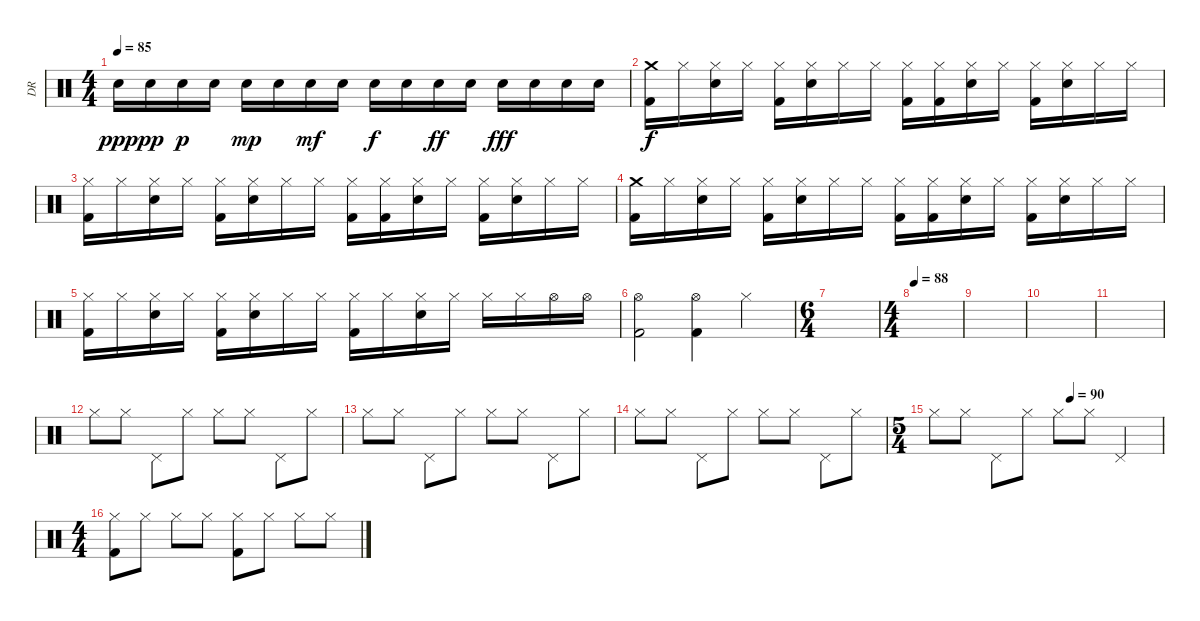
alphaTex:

\track ("DR" "DR") {instrument percussion}
\staff {score}
\articulation defaults
\ts (4 4)
\tempo 85
\clef neutral
\ks c "Snare (hit) 2".16{dy ppp} "Snare (hit) 2".16{dy pp} "Snare (hit) 2".16{dy p} "Snare (hit) 2".16 "Snare (hit) 2".16{dy mp} "Snare (hit) 2".16 "Snare (hit) 2".16{dy mf} "Snare (hit) 2".16 "Snare (hit) 2".16{dy f} "Snare (hit) 2".16 "Snare (hit) 2".16{dy ff} "Snare (hit) 2".16 "Snare (hit) 2".16{dy fff} "Snare (hit) 2".16 "Snare (hit) 2".16 "Snare (hit) 2".16
|
("Crash medium (hit)" "Kick (hit) 2").16{dy f} "Hi-Hat (closed)".16 ("Hi-Hat (closed)" "Snare (hit) 2").16 "Hi-Hat (closed)".16 ("Hi-Hat (closed)" "Kick (hit) 2").16 ("Hi-Hat (closed)" "Snare (hit) 2").16 "Hi-Hat (closed)".16 "Hi-Hat (closed)".16 ("Hi-Hat (closed)" "Kick (hit) 2").16 ("Hi-Hat (closed)" "Kick (hit) 2").16 ("Hi-Hat (closed)" "Snare (hit) 2").16 "Hi-Hat (closed)".16 ("Hi-Hat (closed)" "Kick (hit) 2").16 ("Hi-Hat (closed)" "Snare (hit) 2").16 "Hi-Hat (closed)".16 "Hi-Hat (closed)".16 |
("Hi-Hat (closed)" "Kick (hit) 2").16 "Hi-Hat (closed)".16 ("Hi-Hat (closed)" "Snare (hit) 2").16 "Hi-Hat (closed)".16 ("Hi-Hat (closed)" "Kick (hit) 2").16 ("Hi-Hat (closed)" "Snare (hit) 2").16 "Hi-Hat (closed)".16 "Hi-Hat (closed)".16 ("Hi-Hat (closed)" "Kick (hit) 2").16 ("Hi-Hat (closed)" "Kick (hit) 2").16 ("Hi-Hat (closed)" "Snare (hit) 2").16 "Hi-Hat (closed)".16 ("Hi-Hat (closed)" "Kick (hit) 2").16 ("Hi-Hat (closed)" "Snare (hit) 2").16 "Hi-Hat (closed)".16 "Hi-Hat (closed)".16 |
("Crash medium (hit)" "Kick (hit) 2").16 "Hi-Hat (closed)".16 ("Hi-Hat (closed)" "Snare (hit) 2").16 "Hi-Hat (closed)".16 ("Hi-Hat (closed)" "Kick (hit) 2").16 ("Hi-Hat (closed)" "Snare (hit) 2").16 "Hi-Hat (closed)".16 "Hi-Hat (closed)".16 ("Hi-Hat (closed)" "Kick (hit) 2").16 ("Hi-Hat (closed)" "Kick (hit) 2").16 ("Hi-Hat (closed)" "Snare (hit) 2").16 "Hi-Hat (closed)".16 ("Hi-Hat (closed)" "Kick (hit) 2").16 ("Hi-Hat (closed)" "Snare (hit) 2").16 "Hi-Hat (closed)".16 "Hi-Hat (closed)".16 |
("Hi-Hat (closed)" "Kick (hit) 2").16 "Hi-Hat (closed)".16 ("Hi-Hat (closed)" "Snare (hit) 2").16 "Hi-Hat (closed)".16 ("Hi-Hat (closed)" "Kick (hit) 2").16 ("Hi-Hat (closed)" "Snare (hit) 2").16 "Hi-Hat (closed)".16 "Hi-Hat (closed)".16 ("Hi-Hat (closed)" "Kick (hit) 2").16 "Hi-Hat (closed)".16 ("Hi-Hat (closed)" "Snare (hit) 2").16 "Hi-Hat (closed)".16 "Hi-Hat (closed)".16 "Hi-Hat (closed)".16 "Hi-Hat (open)".16 "Hi-Hat (open)".16 |
("Hi-Hat (open)" "Kick (hit) 2").2 ("Hi-Hat (open)" "Kick (hit) 2").4 "Hi-Hat (closed)".4 |
\ts (6 4)
|
\ts (4 4)
\tempo 88
|
|
|
|
"Hi-Hat (closed)".8 "Hi-Hat (closed)".8 "Pedal Hi-Hat (hit)".8 "Hi-Hat (closed)".8 "Hi-Hat (closed)".8 "Hi-Hat (closed)".8 "Pedal Hi-Hat (hit)".8 "Hi-Hat (closed)".8 |
"Hi-Hat (closed)".8 "Hi-Hat (closed)".8 "Pedal Hi-Hat (hit)".8 "Hi-Hat (closed)".8 "Hi-Hat (closed)".8 "Hi-Hat (closed)".8 "Pedal Hi-Hat (hit)".8 "Hi-Hat (closed)".8 |
"Hi-Hat (closed)".8 "Hi-Hat (closed)".8 "Pedal Hi-Hat (hit)".8 "Hi-Hat (closed)".8 "Hi-Hat (closed)".8 "Hi-Hat (closed)".8 "Pedal Hi-Hat (hit)".8 "Hi-Hat (closed)".8 |
\ts (5 4)
\tempo (90 0.6)
"Hi-Hat (closed)".8 "Hi-Hat (closed)".8 "Pedal Hi-Hat (hit)".8 "Hi-Hat (closed)".8 "Hi-Hat (closed)".8 "Hi-Hat (closed)".8 "Pedal Hi-Hat (hit)".2 |
\ts (4 4)
("Hi-Hat (closed)" "Kick (hit) 2").8 "Hi-Hat (closed)".8 "Hi-Hat (closed)".8 "Hi-Hat (closed)".8 ("Hi-Hat (closed)" "Kick (hit) 2").8 "Hi-Hat (closed)".8 "Hi-Hat (closed)".8 "Hi-Hat (closed)".8
